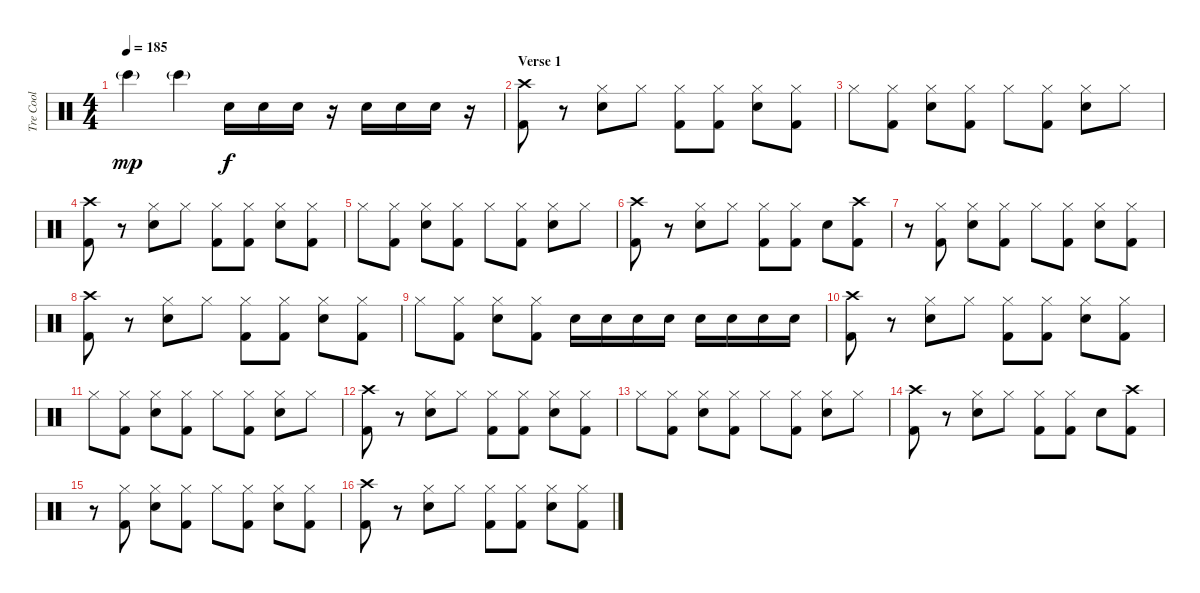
\track ("Tre Cool" "Tre Cool") {instrument percussion}
\staff {score}
\articulation defaults
\ts (4 4)
\tempo 185
\clef neutral
\ks c "Bongo High (hit)"{g}.4{dy mp} "Bongo High (hit)"{g}.4 "Electric Snare (hit)".16{dy f} "Electric Snare (hit)".16 "Electric Snare (hit)".16
r.16 "Electric Snare (hit)".16 "Electric Snare (hit)".16 "Electric Snare (hit)".16 r.16 |
\section ("" "Verse 1")
("Crash high (hit)" "Kick (hit) 2").8 r.8 ("Hi-Hat (closed)" "Electric Snare (hit)").8 "Hi-Hat (closed)".8 ("Hi-Hat (closed)" "Kick (hit) 2").8 ("Hi-Hat (closed)" "Kick (hit) 2").8 ("Hi-Hat (closed)" "Electric Snare (hit)").8 ("Hi-Hat (closed)" "Kick (hit) 2").8 |
"Hi-Hat (closed)".8 ("Hi-Hat (closed)" "Kick (hit) 2").8 ("Hi-Hat (closed)" "Electric Snare (hit)").8 ("Hi-Hat (closed)" "Kick (hit) 2").8 "Hi-Hat (closed)".8 ("Hi-Hat (closed)" "Kick (hit) 2").8 ("Hi-Hat (closed)" "Electric Snare (hit)").8 "Hi-Hat (closed)".8 |
("Crash high (hit)" "Kick (hit) 2").8 r.8 ("Hi-Hat (closed)" "Electric Snare (hit)").8 "Hi-Hat (closed)".8 ("Hi-Hat (closed)" "Kick (hit) 2").8 ("Hi-Hat (closed)" "Kick (hit) 2").8 ("Hi-Hat (closed)" "Electric Snare (hit)").8 ("Hi-Hat (closed)" "Kick (hit) 2").8 |
"Hi-Hat (closed)".8 ("Hi-Hat (closed)" "Kick (hit) 2").8 ("Hi-Hat (closed)" "Electric Snare (hit)").8 ("Hi-Hat (closed)" "Kick (hit) 2").8 "Hi-Hat (closed)".8 ("Hi-Hat (closed)" "Kick (hit) 2").8 ("Hi-Hat (closed)" "Electric Snare (hit)").8 "Hi-Hat (closed)".8 |
("Crash high (hit)" "Kick (hit) 2").8 r.8 ("Hi-Hat (closed)" "Electric Snare (hit)").8 "Hi-Hat (closed)".8 ("Hi-Hat (closed)" "Kick (hit) 2").8 ("Hi-Hat (closed)" "Kick (hit) 2").8 "Electric Snare (hit)".8 ("Crash high (hit)" "Kick (hit) 2").8 |
r.8 ("Hi-Hat (closed)" "Kick (hit) 2").8 ("Hi-Hat (closed)" "Electric Snare (hit)").8 ("Hi-Hat (closed)" "Kick (hit) 2").8 "Hi-Hat (closed)".8 ("Hi-Hat (closed)" "Kick (hit) 2").8 ("Hi-Hat (closed)" "Electric Snare (hit)").8 ("Hi-Hat (closed)" "Kick (hit) 2").8 |
("Crash high (hit)" "Kick (hit) 2").8 r.8 ("Hi-Hat (closed)" "Electric Snare (hit)").8 "Hi-Hat (closed)".8 ("Hi-Hat (closed)" "Kick (hit) 2").8 ("Hi-Hat (closed)" "Kick (hit) 2").8 ("Hi-Hat (closed)" "Electric Snare (hit)").8 ("Hi-Hat (closed)" "Kick (hit) 2").8 |
"Hi-Hat (closed)".8 ("Hi-Hat (closed)" "Kick (hit) 2").8 ("Hi-Hat (closed)" "Electric Snare (hit)").8 ("Hi-Hat (closed)" "Kick (hit) 2").8 "Electric Snare (hit)".16 "Electric Snare (hit)".16 "Electric Snare (hit)".16 "Electric Snare (hit)".16 "Electric Snare (hit)".16 "Electric Snare (hit)".16 "Electric Snare (hit)".16 "Electric Snare (hit)".16 |
("Crash high (hit)" "Kick (hit) 2").8 r.8 ("Hi-Hat (closed)" "Electric Snare (hit)").8 "Hi-Hat (closed)".8 ("Hi-Hat (closed)" "Kick (hit) 2").8 ("Hi-Hat (closed)" "Kick (hit) 2").8 ("Hi-Hat (closed)" "Electric Snare (hit)").8 ("Hi-Hat (closed)" "Kick (hit) 2").8 |
"Hi-Hat (closed)".8 ("Hi-Hat (closed)" "Kick (hit) 2").8 ("Hi-Hat (closed)" "Electric Snare (hit)").8 ("Hi-Hat (closed)" "Kick (hit) 2").8 "Hi-Hat (closed)".8 ("Hi-Hat (closed)" "Kick (hit) 2").8 ("Hi-Hat (closed)" "Electric Snare (hit)").8 "Hi-Hat (closed)".8 |
("Crash high (hit)" "Kick (hit) 2").8 r.8 ("Hi-Hat (closed)" "Electric Snare (hit)").8 "Hi-Hat (closed)".8 ("Hi-Hat (closed)" "Kick (hit) 2").8 ("Hi-Hat (closed)" "Kick (hit) 2").8 ("Hi-Hat (closed)" "Electric Snare (hit)").8 ("Hi-Hat (closed)" "Kick (hit) 2").8 |
"Hi-Hat (closed)".8 ("Hi-Hat (closed)" "Kick (hit) 2").8 ("Hi-Hat (closed)" "Electric Snare (hit)").8 ("Hi-Hat (closed)" "Kick (hit) 2").8 "Hi-Hat (closed)".8 ("Hi-Hat (closed)" "Kick (hit) 2").8 ("Hi-Hat (closed)" "Electric Snare (hit)").8 "Hi-Hat (closed)".8 |
("Crash high (hit)" "Kick (hit) 2").8 r.8 ("Hi-Hat (closed)" "Electric Snare (hit)").8 "Hi-Hat (closed)".8 ("Hi-Hat (closed)" "Kick (hit) 2").8 ("Hi-Hat (closed)" "Kick (hit) 2").8 "Electric Snare (hit)".8 ("Crash high (hit)" "Kick (hit) 2").8 |
r.8 ("Hi-Hat (closed)" "Kick (hit) 2").8 ("Hi-Hat (closed)" "Electric Snare (hit)").8 ("Hi-Hat (closed)" "Kick (hit) 2").8 "Hi-Hat (closed)".8 ("Hi-Hat (closed)" "Kick (hit) 2").8 ("Hi-Hat (closed)" "Electric Snare (hit)").8 ("Hi-Hat (closed)" "Kick (hit) 2").8 |
("Crash high (hit)" "Kick (hit) 2").8 r.8 ("Hi-Hat (closed)" "Electric Snare (hit)").8 "Hi-Hat (closed)".8 ("Hi-Hat (closed)" "Kick (hit) 2").8 ("Hi-Hat (closed)" "Kick (hit) 2").8 ("Hi-Hat (closed)" "Electric Snare (hit)").8 ("Hi-Hat (closed)" "Kick (hit) 2").8
